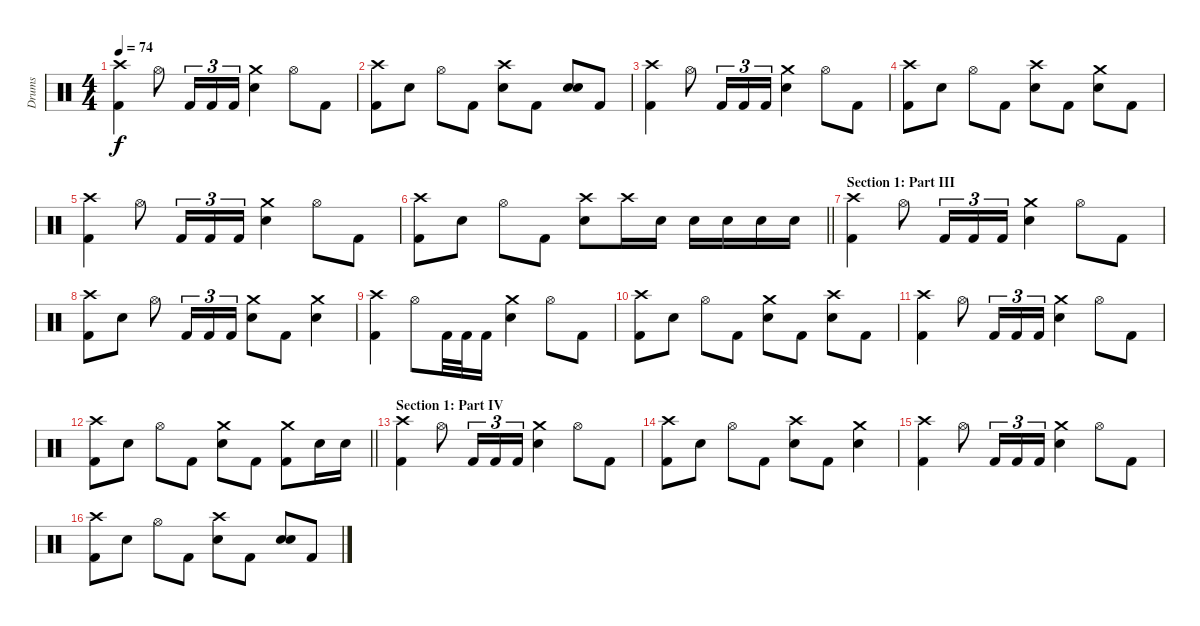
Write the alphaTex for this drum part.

\track ("Drums" "Drums") {instrument percussion}
\staff {score}
\articulation defaults
\ts (4 4)
\tempo 74
\clef neutral
\ks c
("Crash high (hit)" "Kick (hit) 2").4{dy f} "Hi-Hat (open)".8 "Kick (hit) 2".16{tu (3 2)} "Kick (hit) 2".16{tu (3 2)} "Kick (hit) 2".16{tu (3 2)} ("Crash medium (hit)" "Electric Snare (hit)").4 "Hi-Hat (open)".8 "Kick (hit) 2".8 |
("Crash high (hit)" "Kick (hit) 2").8 "Electric Snare (hit)".8 "Hi-Hat (open)".8 "Kick (hit) 2".8 ("Crash high (hit)" "Electric Snare (hit)").8 "Kick (hit) 2".8 ("Electric Snare (hit)" "Electric Snare (hit)").8{bu 60} "Kick (hit) 2".8 |
("Crash high (hit)" "Kick (hit) 2").4 "Hi-Hat (open)".8 "Kick (hit) 2".16{tu (3 2)} "Kick (hit) 2".16{tu (3 2)} "Kick (hit) 2".16{tu (3 2)} ("Crash medium (hit)" "Electric Snare (hit)").4 "Hi-Hat (open)".8 "Kick (hit) 2".8 |
("Crash high (hit)" "Kick (hit) 2").8 "Electric Snare (hit)".8 "Hi-Hat (open)".8 "Kick (hit) 2".8 ("Crash high (hit)" "Electric Snare (hit)").8 "Kick (hit) 2".8 ("Crash medium (hit)" "Electric Snare (hit)").8 "Kick (hit) 2".8 |
("Crash high (hit)" "Kick (hit) 2").4 "Hi-Hat (open)".8 "Kick (hit) 2".16{tu (3 2)} "Kick (hit) 2".16{tu (3 2)} "Kick (hit) 2".16{tu (3 2)} ("Crash medium (hit)" "Electric Snare (hit)").4 "Hi-Hat (open)".8 "Kick (hit) 2".8 |
\barLineRight lightlight
("Crash high (hit)" "Kick (hit) 2").8 "Electric Snare (hit)".8 "Hi-Hat (open)".8 "Kick (hit) 2".8 ("Crash high (hit)" "Electric Snare (hit)").8 "Crash high (hit)".16 "Electric Snare (hit)".16 "Electric Snare (hit)".16 "Electric Snare (hit)".16 "Electric Snare (hit)".16 "Electric Snare (hit)".16 |
\section ("" "Section 1: Part III")
("Crash high (hit)" "Kick (hit) 2").4 "Hi-Hat (open)".8 "Kick (hit) 2".16{tu (3 2)} "Kick (hit) 2".16{tu (3 2)} "Kick (hit) 2".16{tu (3 2)} ("Crash medium (hit)" "Electric Snare (hit)").4 "Hi-Hat (open)".8 "Kick (hit) 2".8 |
("Crash high (hit)" "Kick (hit) 2").8 "Electric Snare (hit)".8 "Hi-Hat (open)".8 "Kick (hit) 2".16{tu (3 2)} "Kick (hit) 2".16{tu (3 2)} "Kick (hit) 2".16{tu (3 2)} ("Crash medium (hit)" "Electric Snare (hit)").8 "Kick (hit) 2".8 ("Crash medium (hit)" "Electric Snare (hit)").4 |
("Crash high (hit)" "Kick (hit) 2").4 "Hi-Hat (open)".8 "Kick (hit) 2".32 "Kick (hit) 2".32 "Kick (hit) 2".16 ("Crash medium (hit)" "Electric Snare (hit)").4 "Hi-Hat (open)".8 "Kick (hit) 2".8 |
("Crash high (hit)" "Kick (hit) 2").8 "Electric Snare (hit)".8 "Hi-Hat (open)".8 "Kick (hit) 2".8 ("Crash medium (hit)" "Electric Snare (hit)").8 "Kick (hit) 2".8 ("Crash high (hit)" "Electric Snare (hit)").8 "Kick (hit) 2".8 |
("Crash high (hit)" "Kick (hit) 2").4 "Hi-Hat (open)".8 "Kick (hit) 2".16{tu (3 2)} "Kick (hit) 2".16{tu (3 2)} "Kick (hit) 2".16{tu (3 2)} ("Crash medium (hit)" "Electric Snare (hit)").4 "Hi-Hat (open)".8 "Kick (hit) 2".8 |
\barLineRight lightlight
("Crash high (hit)" "Kick (hit) 2").8 "Electric Snare (hit)".8 "Hi-Hat (open)".8 "Kick (hit) 2".8 ("Crash medium (hit)" "Electric Snare (hit)").8 "Kick (hit) 2".8 ("Crash medium (hit)" "Kick (hit) 2").8 "Electric Snare (hit)".16 "Electric Snare (hit)".16 |
\section ("" "Section 1: Part IV")
("Crash high (hit)" "Kick (hit) 2").4 "Hi-Hat (open)".8 "Kick (hit) 2".16{tu (3 2)} "Kick (hit) 2".16{tu (3 2)} "Kick (hit) 2".16{tu (3 2)} ("Crash medium (hit)" "Electric Snare (hit)").4 "Hi-Hat (open)".8 "Kick (hit) 2".8 |
("Crash high (hit)" "Kick (hit) 2").8 "Electric Snare (hit)".8 "Hi-Hat (open)".8 "Kick (hit) 2".8 ("Crash high (hit)" "Electric Snare (hit)").8 "Kick (hit) 2".8 ("Crash medium (hit)" "Electric Snare (hit)").4 |
("Crash high (hit)" "Kick (hit) 2").4 "Hi-Hat (open)".8 "Kick (hit) 2".16{tu (3 2)} "Kick (hit) 2".16{tu (3 2)} "Kick (hit) 2".16{tu (3 2)} ("Crash medium (hit)" "Electric Snare (hit)").4 "Hi-Hat (open)".8 "Kick (hit) 2".8 |
("Crash high (hit)" "Kick (hit) 2").8 "Electric Snare (hit)".8 "Hi-Hat (open)".8 "Kick (hit) 2".8 ("Crash high (hit)" "Electric Snare (hit)").8 "Kick (hit) 2".8 ("Electric Snare (hit)" "Electric Snare (hit)").8{bu 60} "Kick (hit) 2".8
